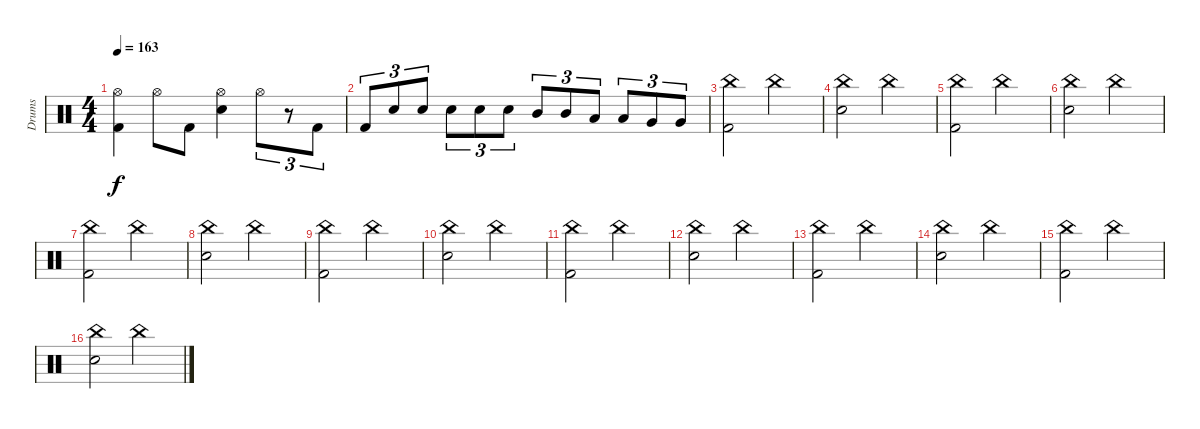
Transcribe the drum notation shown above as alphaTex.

\track ("Drums" "Drums") {instrument percussion}
\staff {score}
\articulation defaults
\ts (4 4)
\tempo 163
\clef neutral
\ks c
("Hi-Hat (open)" "Kick (hit) 2").4{dy f} "Hi-Hat (open)".8 "Kick (hit) 2".8 ("Hi-Hat (open)" "Snare (hit) 2").4 "Hi-Hat (open)".8{tu (3 2)} r.8{tu (3 2)} "Kick (hit) 2".8{tu (3 2)} |
"Kick (hit) 2".8{tu (3 2)} "Snare (hit) 2".8{tu (3 2)} "Snare (hit) 2".8{tu (3 2)} "Snare (hit) 2".8{tu (3 2)} "Snare (hit) 2".8{tu (3 2)} "Snare (hit) 2".8{tu (3 2)} "Mid Tom (hit)".8{tu (3 2)} "Mid Tom (hit)".8{tu (3 2)} "Low Tom (hit)".8{tu (3 2)} "Low Tom (hit)".8{tu (3 2)} "Very Low Tom (hit)".8{tu (3 2)} "Very Low Tom (hit)".8{tu (3 2)} |
("China (hit)" "Kick (hit) 2").2 "China (hit)".2 |
("China (hit)" "Snare (hit) 2").2 "China (hit)".2 |
("China (hit)" "Kick (hit) 2").2 "China (hit)".2 |
("China (hit)" "Snare (hit) 2").2 "China (hit)".2 |
("China (hit)" "Kick (hit) 2").2 "China (hit)".2 |
("China (hit)" "Snare (hit) 2").2 "China (hit)".2 |
("China (hit)" "Kick (hit) 2").2 "China (hit)".2 |
("China (hit)" "Snare (hit) 2").2 "China (hit)".2 |
("China (hit)" "Kick (hit) 2").2 "China (hit)".2 |
("China (hit)" "Snare (hit) 2").2 "China (hit)".2 |
("China (hit)" "Kick (hit) 2").2 "China (hit)".2 |
("China (hit)" "Snare (hit) 2").2 "China (hit)".2 |
("China (hit)" "Kick (hit) 2").2 "China (hit)".2 |
("China (hit)" "Snare (hit) 2").2 "China (hit)".2
